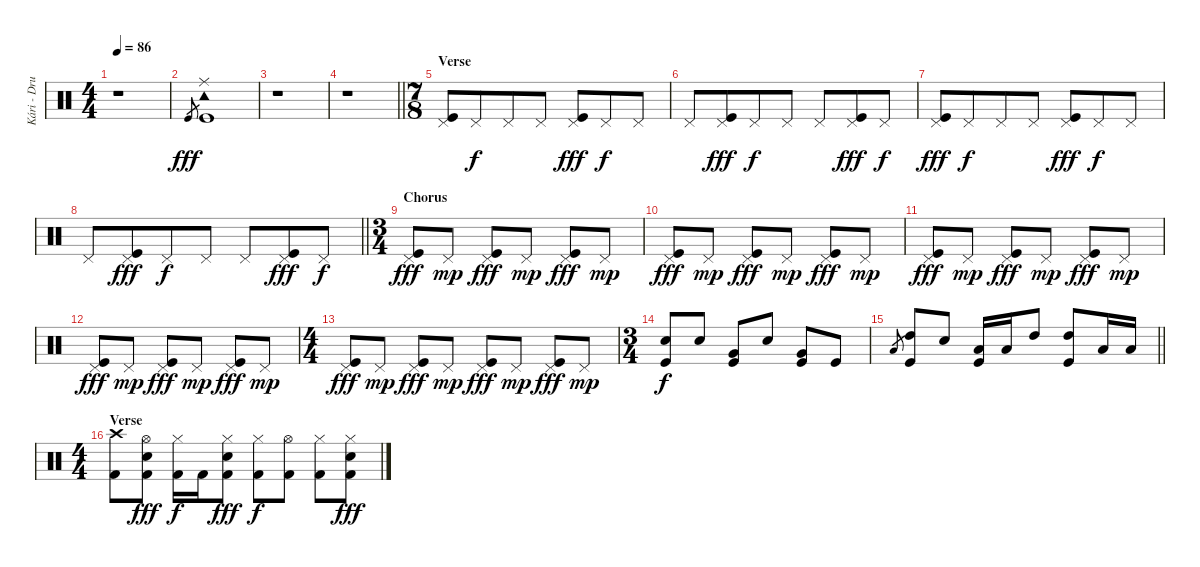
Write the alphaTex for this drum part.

\track ("Kári - Drums" "Kári - Dru") {instrument percussion}
\staff {score}
\articulation defaults
\ts (4 4)
\tempo 86
\clef neutral
\ks c
r.1{dy fff} |
"Kick (hit)".8{gr} ("Tambourine (hit)" "Ride (middle)" "Kick (hit)").1 |
r.1 |
\barLineRight lightlight
r.1 |
\ts (7 8)
\section ("" "Verse")
("Pedal Hi-Hat (hit)" "Kick (hit)").8 "Pedal Hi-Hat (hit)".8{dy f} "Pedal Hi-Hat (hit)".8 "Pedal Hi-Hat (hit)".8 ("Pedal Hi-Hat (hit)" "Kick (hit)").8{dy fff} "Pedal Hi-Hat (hit)".8{dy f} "Pedal Hi-Hat (hit)".8 |
"Pedal Hi-Hat (hit)".8 ("Pedal Hi-Hat (hit)" "Kick (hit)").8{dy fff} "Pedal Hi-Hat (hit)".8{dy f} "Pedal Hi-Hat (hit)".8 "Pedal Hi-Hat (hit)".8 ("Pedal Hi-Hat (hit)" "Kick (hit)").8{dy fff} "Pedal Hi-Hat (hit)".8{dy f} |
("Pedal Hi-Hat (hit)" "Kick (hit)").8{dy fff} "Pedal Hi-Hat (hit)".8{dy f} "Pedal Hi-Hat (hit)".8 "Pedal Hi-Hat (hit)".8 ("Pedal Hi-Hat (hit)" "Kick (hit)").8{dy fff} "Pedal Hi-Hat (hit)".8{dy f} "Pedal Hi-Hat (hit)".8 |
\barLineRight lightlight "Pedal Hi-Hat (hit)".8
("Pedal Hi-Hat (hit)" "Kick (hit)").8{dy fff} "Pedal Hi-Hat (hit)".8{dy f} "Pedal Hi-Hat (hit)".8 "Pedal Hi-Hat (hit)".8 ("Pedal Hi-Hat (hit)" "Kick (hit)").8{dy fff} "Pedal Hi-Hat (hit)".8{dy f} |
\ts (3 4)
\section ("" "Chorus")
("Pedal Hi-Hat (hit)" "Kick (hit)").8{dy fff} "Pedal Hi-Hat (hit)".8{dy mp} ("Pedal Hi-Hat (hit)" "Kick (hit)").8{dy fff} "Pedal Hi-Hat (hit)".8{dy mp} ("Pedal Hi-Hat (hit)" "Kick (hit)").8{dy fff} "Pedal Hi-Hat (hit)".8{dy mp} |
("Pedal Hi-Hat (hit)" "Kick (hit)").8{dy fff} "Pedal Hi-Hat (hit)".8{dy mp} ("Pedal Hi-Hat (hit)" "Kick (hit)").8{dy fff} "Pedal Hi-Hat (hit)".8{dy mp} ("Pedal Hi-Hat (hit)" "Kick (hit)").8{dy fff} "Pedal Hi-Hat (hit)".8{dy mp} |
("Pedal Hi-Hat (hit)" "Kick (hit)").8{dy fff} "Pedal Hi-Hat (hit)".8{dy mp} ("Pedal Hi-Hat (hit)" "Kick (hit)").8{dy fff} "Pedal Hi-Hat (hit)".8{dy mp} ("Pedal Hi-Hat (hit)" "Kick (hit)").8{dy fff} "Pedal Hi-Hat (hit)".8{dy mp} |
("Pedal Hi-Hat (hit)" "Kick (hit)").8{dy fff} "Pedal Hi-Hat (hit)".8{dy mp} ("Pedal Hi-Hat (hit)" "Kick (hit)").8{dy fff} "Pedal Hi-Hat (hit)".8{dy mp} ("Pedal Hi-Hat (hit)" "Kick (hit)").8{dy fff} "Pedal Hi-Hat (hit)".8{dy mp} |
\ts (4 4)
("Pedal Hi-Hat (hit)" "Kick (hit)").8{dy fff} "Pedal Hi-Hat (hit)".8{dy mp} ("Pedal Hi-Hat (hit)" "Kick (hit)").8{dy fff} "Pedal Hi-Hat (hit)".8{dy mp} ("Pedal Hi-Hat (hit)" "Kick (hit)").8{dy fff} "Pedal Hi-Hat (hit)".8{dy mp} ("Pedal Hi-Hat (hit)" "Kick (hit)").8{dy fff} "Pedal Hi-Hat (hit)".8{dy mp} |
\ts (3 4)
("Electric Snare (hit)" "Kick (hit)").8{dy f} "Electric Snare (hit)".8 ("Very Low Tom (hit)" "Kick (hit)").8 "Electric Snare (hit)".8 ("Very Low Tom (hit)" "Kick (hit)").8 "Kick (hit)".8 |
\barLineRight lightlight "Low Tom (hit)".8{gr}
("High Tom (hit)" "Kick (hit)").8 "Electric Snare (hit)".8 ("Low Tom (hit)" "Kick (hit)").16 "Low Tom (hit)".16 "High Tom (hit)".8 ("High Tom (hit)" "Kick (hit)").8 "Low Tom (hit)".16 "Low Tom (hit)".16 |
\ts (4 4)
\section ("" "Verse")
("Crash high (hit)" "Kick (hit) 2").8 ("Hi-Hat (open)" "Electric Snare (hit)" "Kick (hit) 2").8{dy fff} ("Hi-Hat (closed)" "Kick (hit) 2").16{dy f} "Kick (hit) 2".16 ("Hi-Hat (closed)" "Electric Snare (hit)" "Kick (hit) 2").8{dy fff} ("Hi-Hat (closed)" "Kick (hit) 2").8{dy f} ("Hi-Hat (open)" "Kick (hit) 2").8 ("Hi-Hat (closed)" "Kick (hit) 2").8 ("Hi-Hat (closed)" "Electric Snare (hit)" "Kick (hit) 2").8{dy fff}
